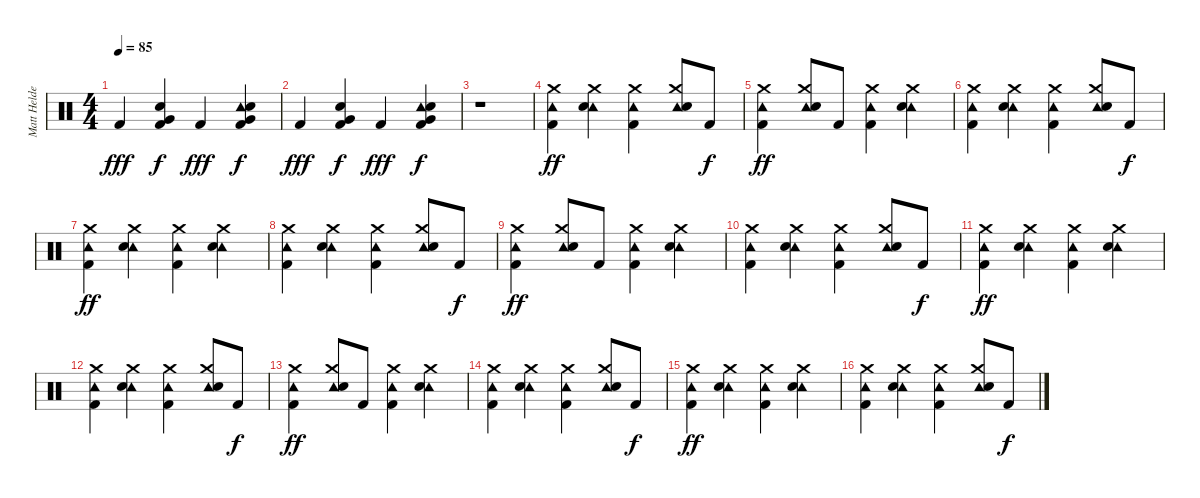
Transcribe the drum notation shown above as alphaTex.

\track ("Matt Helders - Drums" "Matt Helde") {instrument percussion}
\staff {score}
\articulation defaults
\ts (4 4)
\tempo 85
\clef neutral
\ks c "Kick (hit) 2".4{dy fff}
("Kick (hit) 2" "Very Low Tom (hit)" "Hand Clap (hit)").4{dy f} "Kick (hit) 2".4{dy fff} ("Kick (hit) 2" "Very Low Tom (hit)" "Tambourine (hit)" "Hand Clap (hit)").4{dy f} |
"Kick (hit) 2".4{dy fff} ("Kick (hit) 2" "Very Low Tom (hit)" "Hand Clap (hit)").4{dy f} "Kick (hit) 2".4{dy fff} ("Kick (hit) 2" "Very Low Tom (hit)" "Tambourine (hit)" "Hand Clap (hit)").4{dy f} |
r.1 |
("Crash medium (hit)" "Tambourine (hit)" "Kick (hit) 2").4{dy ff} ("Crash medium (hit)" "Tambourine (hit)" "Electric Snare (hit)").4 ("Crash medium (hit)" "Tambourine (hit)" "Kick (hit) 2").4 ("Crash medium (hit)" "Tambourine (hit)" "Electric Snare (hit)").8 "Kick (hit) 2".8{dy f} |
("Crash medium (hit)" "Tambourine (hit)" "Kick (hit) 2").4{dy ff} ("Crash medium (hit)" "Tambourine (hit)" "Electric Snare (hit)").8 "Kick (hit) 2".8 ("Crash medium (hit)" "Tambourine (hit)" "Kick (hit) 2").4 ("Crash medium (hit)" "Tambourine (hit)" "Electric Snare (hit)").4 |
("Crash medium (hit)" "Tambourine (hit)" "Kick (hit) 2").4 ("Crash medium (hit)" "Tambourine (hit)" "Electric Snare (hit)").4 ("Crash medium (hit)" "Tambourine (hit)" "Kick (hit) 2").4 ("Crash medium (hit)" "Tambourine (hit)" "Electric Snare (hit)").8 "Kick (hit) 2".8{dy f} |
("Crash medium (hit)" "Tambourine (hit)" "Kick (hit) 2").4{dy ff} ("Crash medium (hit)" "Tambourine (hit)" "Electric Snare (hit)").4 ("Crash medium (hit)" "Tambourine (hit)" "Kick (hit) 2").4 ("Crash medium (hit)" "Tambourine (hit)" "Electric Snare (hit)").4 |
("Crash medium (hit)" "Tambourine (hit)" "Kick (hit) 2").4 ("Crash medium (hit)" "Tambourine (hit)" "Electric Snare (hit)").4 ("Crash medium (hit)" "Tambourine (hit)" "Kick (hit) 2").4 ("Crash medium (hit)" "Tambourine (hit)" "Electric Snare (hit)").8 "Kick (hit) 2".8{dy f} |
("Crash medium (hit)" "Tambourine (hit)" "Kick (hit) 2").4{dy ff} ("Crash medium (hit)" "Tambourine (hit)" "Electric Snare (hit)").8 "Kick (hit) 2".8 ("Crash medium (hit)" "Tambourine (hit)" "Kick (hit) 2").4 ("Crash medium (hit)" "Tambourine (hit)" "Electric Snare (hit)").4 |
("Crash medium (hit)" "Tambourine (hit)" "Kick (hit) 2").4 ("Crash medium (hit)" "Tambourine (hit)" "Electric Snare (hit)").4 ("Crash medium (hit)" "Tambourine (hit)" "Kick (hit) 2").4 ("Crash medium (hit)" "Tambourine (hit)" "Electric Snare (hit)").8 "Kick (hit) 2".8{dy f} |
("Crash medium (hit)" "Tambourine (hit)" "Kick (hit) 2").4{dy ff} ("Crash medium (hit)" "Tambourine (hit)" "Electric Snare (hit)").4 ("Crash medium (hit)" "Tambourine (hit)" "Kick (hit) 2").4 ("Crash medium (hit)" "Tambourine (hit)" "Electric Snare (hit)").4 |
("Crash medium (hit)" "Tambourine (hit)" "Kick (hit) 2").4 ("Crash medium (hit)" "Tambourine (hit)" "Electric Snare (hit)").4 ("Crash medium (hit)" "Tambourine (hit)" "Kick (hit) 2").4 ("Crash medium (hit)" "Tambourine (hit)" "Electric Snare (hit)").8 "Kick (hit) 2".8{dy f} |
("Crash medium (hit)" "Tambourine (hit)" "Kick (hit) 2").4{dy ff} ("Crash medium (hit)" "Tambourine (hit)" "Electric Snare (hit)").8 "Kick (hit) 2".8 ("Crash medium (hit)" "Tambourine (hit)" "Kick (hit) 2").4 ("Crash medium (hit)" "Tambourine (hit)" "Electric Snare (hit)").4 |
("Crash medium (hit)" "Tambourine (hit)" "Kick (hit) 2").4 ("Crash medium (hit)" "Tambourine (hit)" "Electric Snare (hit)").4 ("Crash medium (hit)" "Tambourine (hit)" "Kick (hit) 2").4 ("Crash medium (hit)" "Tambourine (hit)" "Electric Snare (hit)").8 "Kick (hit) 2".8{dy f} |
("Crash medium (hit)" "Tambourine (hit)" "Kick (hit) 2").4{dy ff} ("Crash medium (hit)" "Tambourine (hit)" "Electric Snare (hit)").4 ("Crash medium (hit)" "Tambourine (hit)" "Kick (hit) 2").4 ("Crash medium (hit)" "Tambourine (hit)" "Electric Snare (hit)").4 |
("Crash medium (hit)" "Tambourine (hit)" "Kick (hit) 2").4 ("Crash medium (hit)" "Tambourine (hit)" "Electric Snare (hit)").4 ("Crash medium (hit)" "Tambourine (hit)" "Kick (hit) 2").4 ("Crash medium (hit)" "Tambourine (hit)" "Electric Snare (hit)").8 "Kick (hit) 2".8{dy f}
